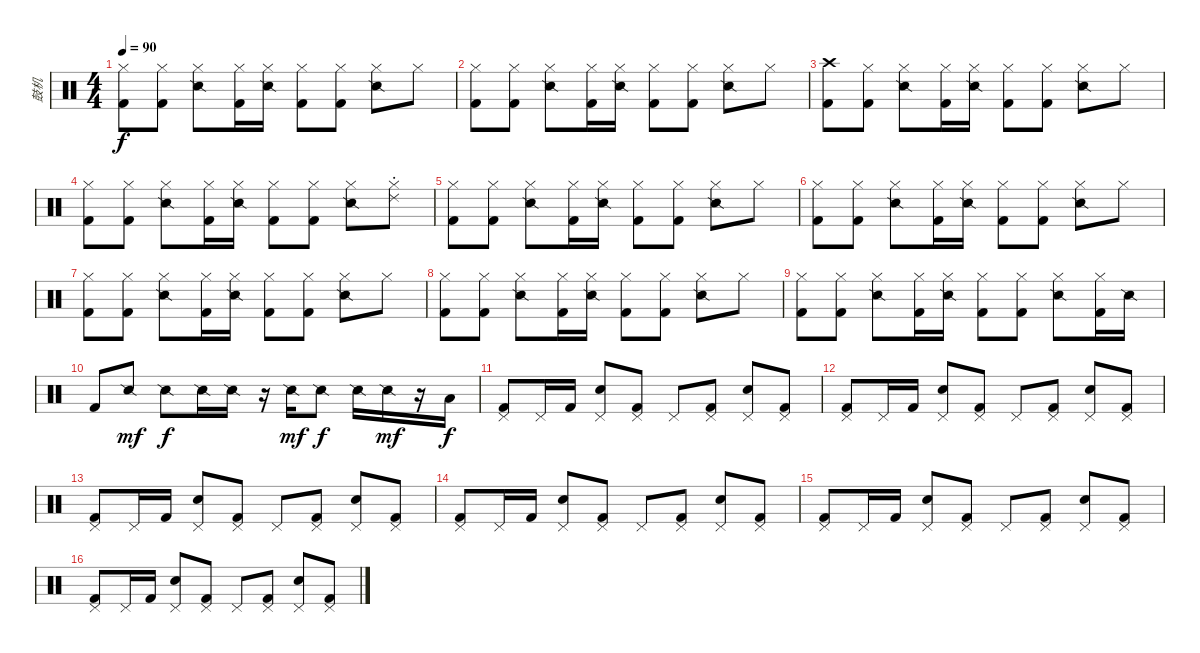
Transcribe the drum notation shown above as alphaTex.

\track ("鼓机" "鼓机") {instrument percussion}
\staff {score}
\articulation defaults
\ts (4 4)
\tempo 90
\clef neutral
\ks c
("Hi-Hat (closed)" "Kick (hit) 2").8{dy f} ("Hi-Hat (closed)" "Kick (hit) 2").8 ("Hi-Hat (closed)" "Snare (side stick) 2").8 ("Hi-Hat (closed)" "Kick (hit) 2").16 ("Hi-Hat (closed)" "Snare (side stick) 2").16 ("Hi-Hat (closed)" "Kick (hit) 2").8 ("Hi-Hat (closed)" "Kick (hit) 2").8 ("Hi-Hat (closed)" "Snare (side stick) 2").8 "Hi-Hat (closed)".8 |
("Hi-Hat (closed)" "Kick (hit) 2").8 ("Hi-Hat (closed)" "Kick (hit) 2").8 ("Hi-Hat (closed)" "Snare (side stick) 2").8 ("Hi-Hat (closed)" "Kick (hit) 2").16 ("Hi-Hat (closed)" "Snare (side stick) 2").16 ("Hi-Hat (closed)" "Kick (hit) 2").8 ("Hi-Hat (closed)" "Kick (hit) 2").8 ("Hi-Hat (closed)" "Snare (side stick) 2").8 "Hi-Hat (closed)".8 |
("Crash high (hit)" "Kick (hit) 2").8 ("Hi-Hat (closed)" "Kick (hit) 2").8 ("Hi-Hat (closed)" "Snare (side stick) 2").8 ("Hi-Hat (closed)" "Kick (hit) 2").16 ("Hi-Hat (closed)" "Snare (side stick) 2").16 ("Hi-Hat (closed)" "Kick (hit) 2").8 ("Hi-Hat (closed)" "Kick (hit) 2").8 ("Hi-Hat (closed)" "Snare (side stick) 2").8 "Hi-Hat (closed)".8 |
("Hi-Hat (closed)" "Kick (hit) 2").8 ("Hi-Hat (closed)" "Kick (hit) 2").8 ("Hi-Hat (closed)" "Snare (side stick) 2").8 ("Hi-Hat (closed)" "Kick (hit) 2").16 ("Hi-Hat (closed)" "Snare (side stick) 2").16 ("Hi-Hat (closed)" "Kick (hit) 2").8 ("Hi-Hat (closed)" "Kick (hit) 2").8 ("Hi-Hat (closed)" "Snare (side stick) 2").8 ("Hi-Hat (closed)" "Ride (choke) 2").8 |
("Hi-Hat (closed)" "Kick (hit) 2").8 ("Hi-Hat (closed)" "Kick (hit) 2").8 ("Hi-Hat (closed)" "Snare (side stick) 2").8 ("Hi-Hat (closed)" "Kick (hit) 2").16 ("Hi-Hat (closed)" "Snare (side stick) 2").16 ("Hi-Hat (closed)" "Kick (hit) 2").8 ("Hi-Hat (closed)" "Kick (hit) 2").8 ("Hi-Hat (closed)" "Snare (side stick) 2").8 "Hi-Hat (closed)".8 |
("Hi-Hat (closed)" "Kick (hit) 2").8 ("Hi-Hat (closed)" "Kick (hit) 2").8 ("Hi-Hat (closed)" "Snare (side stick) 2").8 ("Hi-Hat (closed)" "Kick (hit) 2").16 ("Hi-Hat (closed)" "Snare (side stick) 2").16 ("Hi-Hat (closed)" "Kick (hit) 2").8 ("Hi-Hat (closed)" "Kick (hit) 2").8 ("Hi-Hat (closed)" "Snare (side stick) 2").8 "Hi-Hat (closed)".8 |
("Hi-Hat (closed)" "Kick (hit) 2").8 ("Hi-Hat (closed)" "Kick (hit) 2").8 ("Hi-Hat (closed)" "Snare (side stick) 2").8 ("Hi-Hat (closed)" "Kick (hit) 2").16 ("Hi-Hat (closed)" "Snare (side stick) 2").16 ("Hi-Hat (closed)" "Kick (hit) 2").8 ("Hi-Hat (closed)" "Kick (hit) 2").8 ("Hi-Hat (closed)" "Snare (side stick) 2").8 "Hi-Hat (closed)".8 |
("Hi-Hat (closed)" "Kick (hit) 2").8 ("Hi-Hat (closed)" "Kick (hit) 2").8 ("Hi-Hat (closed)" "Snare (side stick) 2").8 ("Hi-Hat (closed)" "Kick (hit) 2").16 ("Hi-Hat (closed)" "Snare (side stick) 2").16 ("Hi-Hat (closed)" "Kick (hit) 2").8 ("Hi-Hat (closed)" "Kick (hit) 2").8 ("Hi-Hat (closed)" "Snare (side stick) 2").8 "Hi-Hat (closed)".8 |
("Hi-Hat (closed)" "Kick (hit) 2").8 ("Hi-Hat (closed)" "Kick (hit) 2").8 ("Hi-Hat (closed)" "Snare (side stick) 2").8 ("Hi-Hat (closed)" "Kick (hit) 2").16 ("Hi-Hat (closed)" "Snare (side stick) 2").16 ("Hi-Hat (closed)" "Kick (hit) 2").8 ("Hi-Hat (closed)" "Kick (hit) 2").8 ("Hi-Hat (closed)" "Snare (side stick) 2").8 ("Hi-Hat (closed)" "Kick (hit) 2").16 "Snare (side stick) 2".16 |
"Kick (hit) 2".8 "Snare (side stick) 2".8{dy mf} "Snare (side stick) 2".8{dy f} "Snare (side stick) 2".16 "Snare (side stick) 2".16 r.16 "Snare (side stick) 2".16{dy mf} "Snare (side stick) 2".8{dy f} "Snare (side stick) 2".16 "Snare (side stick) 2".16{dy mf} r.16 "Low Tom (hit)".16{dy f} |
("Pedal Hi-Hat (hit)" "Kick (hit) 2").8 "Pedal Hi-Hat (hit)".16 "Kick (hit) 2".16 ("Pedal Hi-Hat (hit)" "Snare (hit) 2").8 ("Pedal Hi-Hat (hit)" "Kick (hit) 2").8 "Pedal Hi-Hat (hit)".8 ("Pedal Hi-Hat (hit)" "Kick (hit) 2").8 ("Pedal Hi-Hat (hit)" "Snare (hit) 2").8 ("Pedal Hi-Hat (hit)" "Kick (hit) 2").8 |
("Pedal Hi-Hat (hit)" "Kick (hit) 2").8 "Pedal Hi-Hat (hit)".16 "Kick (hit) 2".16 ("Pedal Hi-Hat (hit)" "Snare (hit) 2").8 ("Pedal Hi-Hat (hit)" "Kick (hit) 2").8 "Pedal Hi-Hat (hit)".8 ("Pedal Hi-Hat (hit)" "Kick (hit) 2").8 ("Pedal Hi-Hat (hit)" "Snare (hit) 2").8 ("Pedal Hi-Hat (hit)" "Kick (hit) 2").8 |
("Pedal Hi-Hat (hit)" "Kick (hit) 2").8 "Pedal Hi-Hat (hit)".16 "Kick (hit) 2".16 ("Pedal Hi-Hat (hit)" "Snare (hit) 2").8 ("Pedal Hi-Hat (hit)" "Kick (hit) 2").8 "Pedal Hi-Hat (hit)".8 ("Pedal Hi-Hat (hit)" "Kick (hit) 2").8 ("Pedal Hi-Hat (hit)" "Snare (hit) 2").8 ("Pedal Hi-Hat (hit)" "Kick (hit) 2").8 |
("Pedal Hi-Hat (hit)" "Kick (hit) 2").8 "Pedal Hi-Hat (hit)".16 "Kick (hit) 2".16 ("Pedal Hi-Hat (hit)" "Snare (hit) 2").8 ("Pedal Hi-Hat (hit)" "Kick (hit) 2").8 "Pedal Hi-Hat (hit)".8 ("Pedal Hi-Hat (hit)" "Kick (hit) 2").8 ("Pedal Hi-Hat (hit)" "Snare (hit) 2").8 ("Pedal Hi-Hat (hit)" "Kick (hit) 2").8 |
("Pedal Hi-Hat (hit)" "Kick (hit) 2").8 "Pedal Hi-Hat (hit)".16 "Kick (hit) 2".16 ("Pedal Hi-Hat (hit)" "Snare (hit) 2").8 ("Pedal Hi-Hat (hit)" "Kick (hit) 2").8 "Pedal Hi-Hat (hit)".8 ("Pedal Hi-Hat (hit)" "Kick (hit) 2").8 ("Pedal Hi-Hat (hit)" "Snare (hit) 2").8 ("Pedal Hi-Hat (hit)" "Kick (hit) 2").8 |
("Pedal Hi-Hat (hit)" "Kick (hit) 2").8 "Pedal Hi-Hat (hit)".16 "Kick (hit) 2".16 ("Pedal Hi-Hat (hit)" "Snare (hit) 2").8 ("Pedal Hi-Hat (hit)" "Kick (hit) 2").8 "Pedal Hi-Hat (hit)".8 ("Pedal Hi-Hat (hit)" "Kick (hit) 2").8 ("Pedal Hi-Hat (hit)" "Snare (hit) 2").8 ("Pedal Hi-Hat (hit)" "Kick (hit) 2").8
